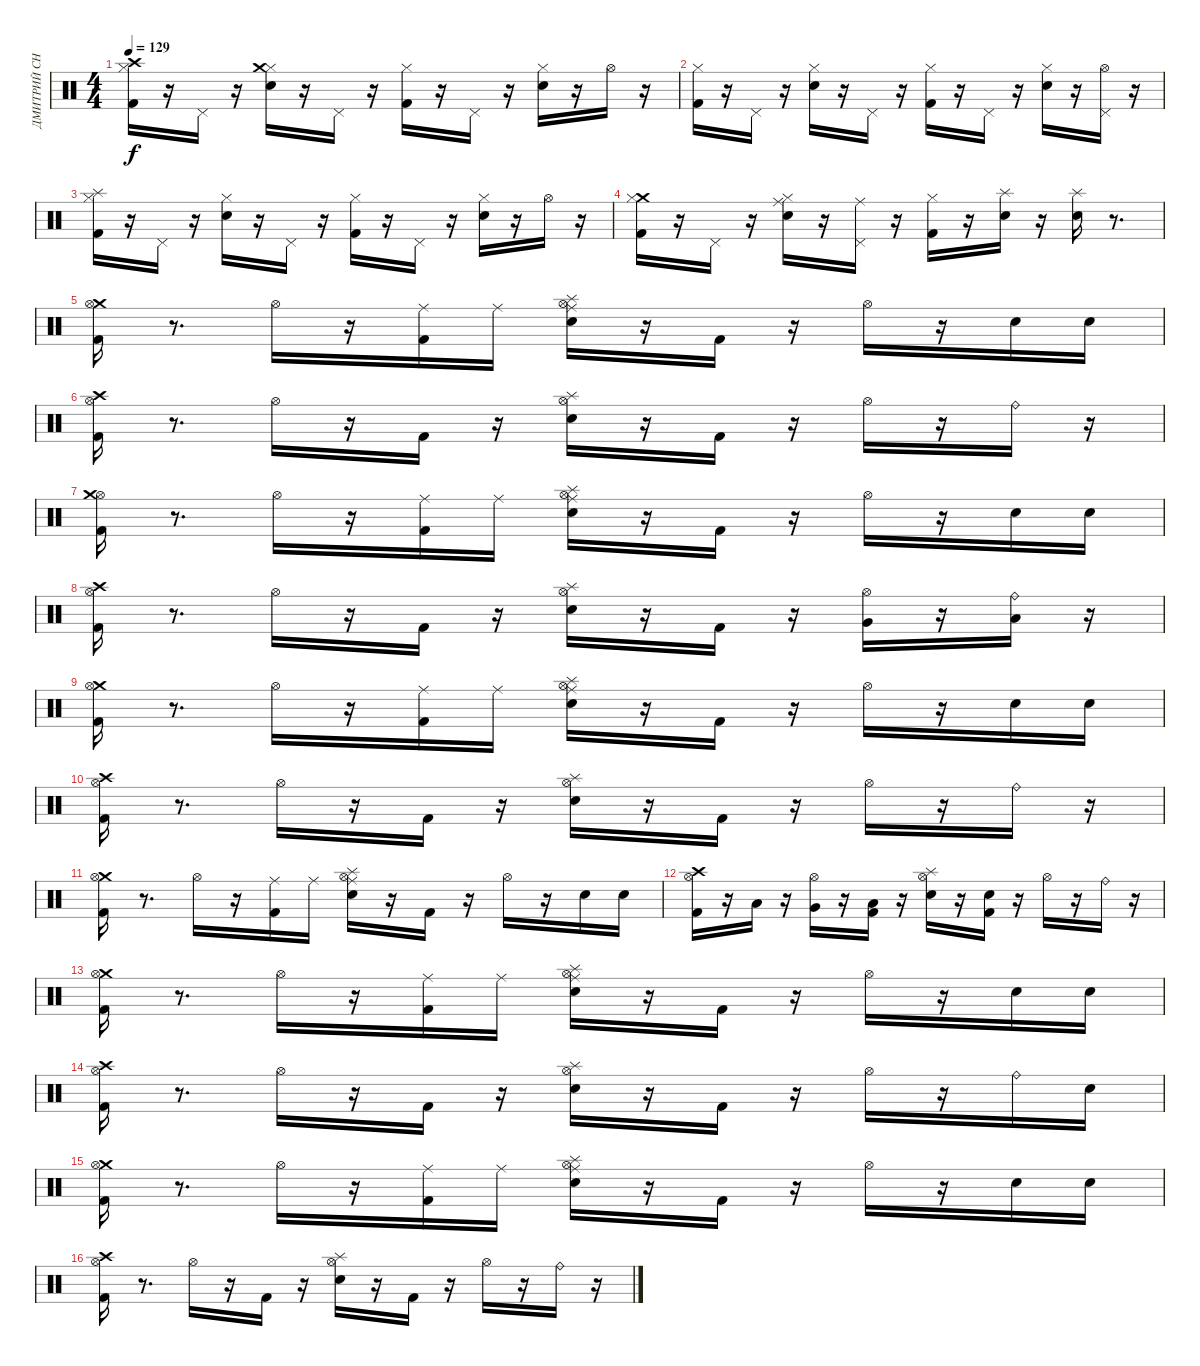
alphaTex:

\track ("ДМИТРИЙ СНЭЙК" "ДМИТРИЙ СН") {instrument percussion}
\staff {score}
\articulation defaults
\ts (4 4)
\tempo 129
\clef neutral
\ks c
("Kick (hit) 2" "Hi-Hat (closed)" "Crash high (hit)").16{dy f} r.16 "Pedal Hi-Hat (hit)".16 r.16 ("Electric Snare (hit)" "Hi-Hat (closed)" "Crash medium (hit)").16 r.16 "Pedal Hi-Hat (hit)".16 r.16 ("Hi-Hat (closed)" "Kick (hit) 2").16 r.16 "Pedal Hi-Hat (hit)".16 r.16 ("Electric Snare (hit)" "Hi-Hat (closed)").16 r.16 "Hi-Hat (open)".16 r.16 |
("Kick (hit) 2" "Hi-Hat (closed)").16 r.16 "Pedal Hi-Hat (hit)".16 r.16 ("Electric Snare (hit)" "Hi-Hat (closed)").16 r.16 "Pedal Hi-Hat (hit)".16 r.16 ("Hi-Hat (closed)" "Kick (hit) 2").16 r.16 "Pedal Hi-Hat (hit)".16 r.16 ("Electric Snare (hit)" "Hi-Hat (closed)").16 r.16 ("Pedal Hi-Hat (hit)" "Hi-Hat (open)").16 r.16 |
("Kick (hit) 2" "Hi-Hat (closed)" "Splash (hit)").16 r.16 "Pedal Hi-Hat (hit)".16 r.16 ("Electric Snare (hit)" "Hi-Hat (closed)").16 r.16 "Pedal Hi-Hat (hit)".16 r.16 ("Hi-Hat (closed)" "Kick (hit) 2").16 r.16 "Pedal Hi-Hat (hit)".16 r.16 ("Electric Snare (hit)" "Hi-Hat (closed)").16 r.16 "Hi-Hat (open)".16 r.16 |
("Crash medium (hit)" "Hi-Hat (closed)" "Kick (hit) 2").16 r.16 "Pedal Hi-Hat (hit)".16 r.16 ("Electric Snare (hit)" "Hi-Hat (closed)" "Ride (middle)").16 r.16 ("Pedal Hi-Hat (hit)" "Ride (middle)").16 r.16 ("Hi-Hat (closed)" "Kick (hit) 2").16 r.16 ("Splash (hit)" "Electric Snare (hit)").16 r.16 ("Splash (hit)" "Electric Snare (hit)").16 r.8{d} |
("Crash medium (hit)" "Hi-Hat (open)" "Kick (hit) 2").16 r.8{d} "Hi-Hat (open)".16 r.16 ("Ride (middle)" "Kick (hit) 2").16 "Ride (middle)".16 ("Ride (middle)" "Splash (hit)" "Hi-Hat (open)" "Electric Snare (hit)").16 r.16 "Kick (hit) 2".16 r.16 "Hi-Hat (open)".16 r.16 "Electric Snare (hit)".16 "Snare (hit) 2".16 |
("Crash high (hit)" "Kick (hit) 2" "Hi-Hat (open)").16 r.8{d} "Hi-Hat (open)".16 r.16 "Kick (hit) 2".16 r.16 ("Splash (hit)" "Electric Snare (hit)" "Hi-Hat (open)").16 r.16 "Kick (hit) 2".16 r.16 "Hi-Hat (open)".16 r.16 "Ride (bell)".16 r.16 |
("Kick (hit) 2" "Hi-Hat (open)" "Crash medium (hit)").16 r.8{d} "Hi-Hat (open)".16 r.16 ("Ride (middle)" "Kick (hit) 2").16 "Ride (middle)".16 ("Ride (middle)" "Splash (hit)" "Hi-Hat (open)" "Electric Snare (hit)").16 r.16 "Kick (hit) 2".16 r.16 "Hi-Hat (open)".16 r.16 "Electric Snare (hit)".16 "Snare (hit) 2".16 |
("Crash high (hit)" "Kick (hit) 2" "Hi-Hat (open)").16 r.8{d} "Hi-Hat (open)".16 r.16 "Kick (hit) 2".16 r.16 ("Splash (hit)" "Electric Snare (hit)" "Hi-Hat (open)").16 r.16 "Kick (hit) 2".16 r.16 ("Very Low Tom (hit)" "Hi-Hat (open)").16 r.16 ("Low Floor Tom (hit)" "Ride (bell)").16 r.16 |
("Crash medium (hit)" "Hi-Hat (open)" "Kick (hit) 2").16 r.8{d} "Hi-Hat (open)".16 r.16 ("Ride (middle)" "Kick (hit) 2").16 "Ride (middle)".16 ("Ride (middle)" "Splash (hit)" "Hi-Hat (open)" "Electric Snare (hit)").16 r.16 "Kick (hit) 2".16 r.16 "Hi-Hat (open)".16 r.16 "Electric Snare (hit)".16 "Snare (hit) 2".16 |
("Crash high (hit)" "Kick (hit) 2" "Hi-Hat (open)").16 r.8{d} "Hi-Hat (open)".16 r.16 "Kick (hit) 2".16 r.16 ("Splash (hit)" "Electric Snare (hit)" "Hi-Hat (open)").16 r.16 "Kick (hit) 2".16 r.16 "Hi-Hat (open)".16 r.16 "Ride (bell)".16 r.16 |
("Crash medium (hit)" "Hi-Hat (open)" "Kick (hit) 2").16 r.8{d} "Hi-Hat (open)".16 r.16 ("Ride (middle)" "Kick (hit) 2").16 "Ride (middle)".16 ("Ride (middle)" "Splash (hit)" "Electric Snare (hit)" "Hi-Hat (open)").16 r.16 "Kick (hit) 2".16 r.16 "Hi-Hat (open)".16 r.16 "Electric Snare (hit)".16 "Snare (hit) 2".16 |
("Crash high (hit)" "Kick (hit) 2" "Hi-Hat (open)").16 r.16 "Low Tom (hit)".16 r.16 ("Very Low Tom (hit)" "Hi-Hat (open)").16 r.16 ("Low Floor Tom (hit)" "Kick (hit) 2").16 r.16 ("Splash (hit)" "Electric Snare (hit)" "Hi-Hat (open)").16 r.16 ("Snare (hit) 2" "Kick (hit) 2").16 r.16 "Hi-Hat (open)".16 r.16 "Ride (bell)".16 r.16 |
("Crash medium (hit)" "Hi-Hat (open)" "Kick (hit) 2").16 r.8{d} "Hi-Hat (open)".16 r.16 ("Ride (middle)" "Kick (hit) 2").16 "Ride (middle)".16 ("Ride (middle)" "Splash (hit)" "Hi-Hat (open)" "Electric Snare (hit)").16 r.16 "Kick (hit) 2".16 r.16 "Hi-Hat (open)".16 r.16 "Electric Snare (hit)".16 "Snare (hit) 2".16 |
("Crash high (hit)" "Kick (hit) 2" "Hi-Hat (open)").16 r.8{d} "Hi-Hat (open)".16 r.16 "Kick (hit) 2".16 r.16 ("Splash (hit)" "Electric Snare (hit)" "Hi-Hat (open)").16 r.16 "Kick (hit) 2".16 r.16 "Hi-Hat (open)".16 r.16 "Ride (bell)".16 "Snare (hit) 2".16 |
("Crash medium (hit)" "Kick (hit) 2" "Hi-Hat (open)").16 r.8{d} "Hi-Hat (open)".16 r.16 ("Ride (middle)" "Kick (hit) 2").16 "Ride (middle)".16 ("Electric Snare (hit)" "Hi-Hat (open)" "Splash (hit)" "Ride (middle)").16 r.16 "Kick (hit) 2".16 r.16 "Hi-Hat (open)".16 r.16 "Electric Snare (hit)".16 "Snare (hit) 2".16 |
("Hi-Hat (open)" "Kick (hit) 2" "Crash high (hit)").16 r.8{d} "Hi-Hat (open)".16 r.16 "Kick (hit) 2".16 r.16 ("Hi-Hat (open)" "Electric Snare (hit)" "Splash (hit)").16 r.16 "Kick (hit) 2".16 r.16 "Hi-Hat (open)".16 r.16 "Ride (bell)".16 r.16
